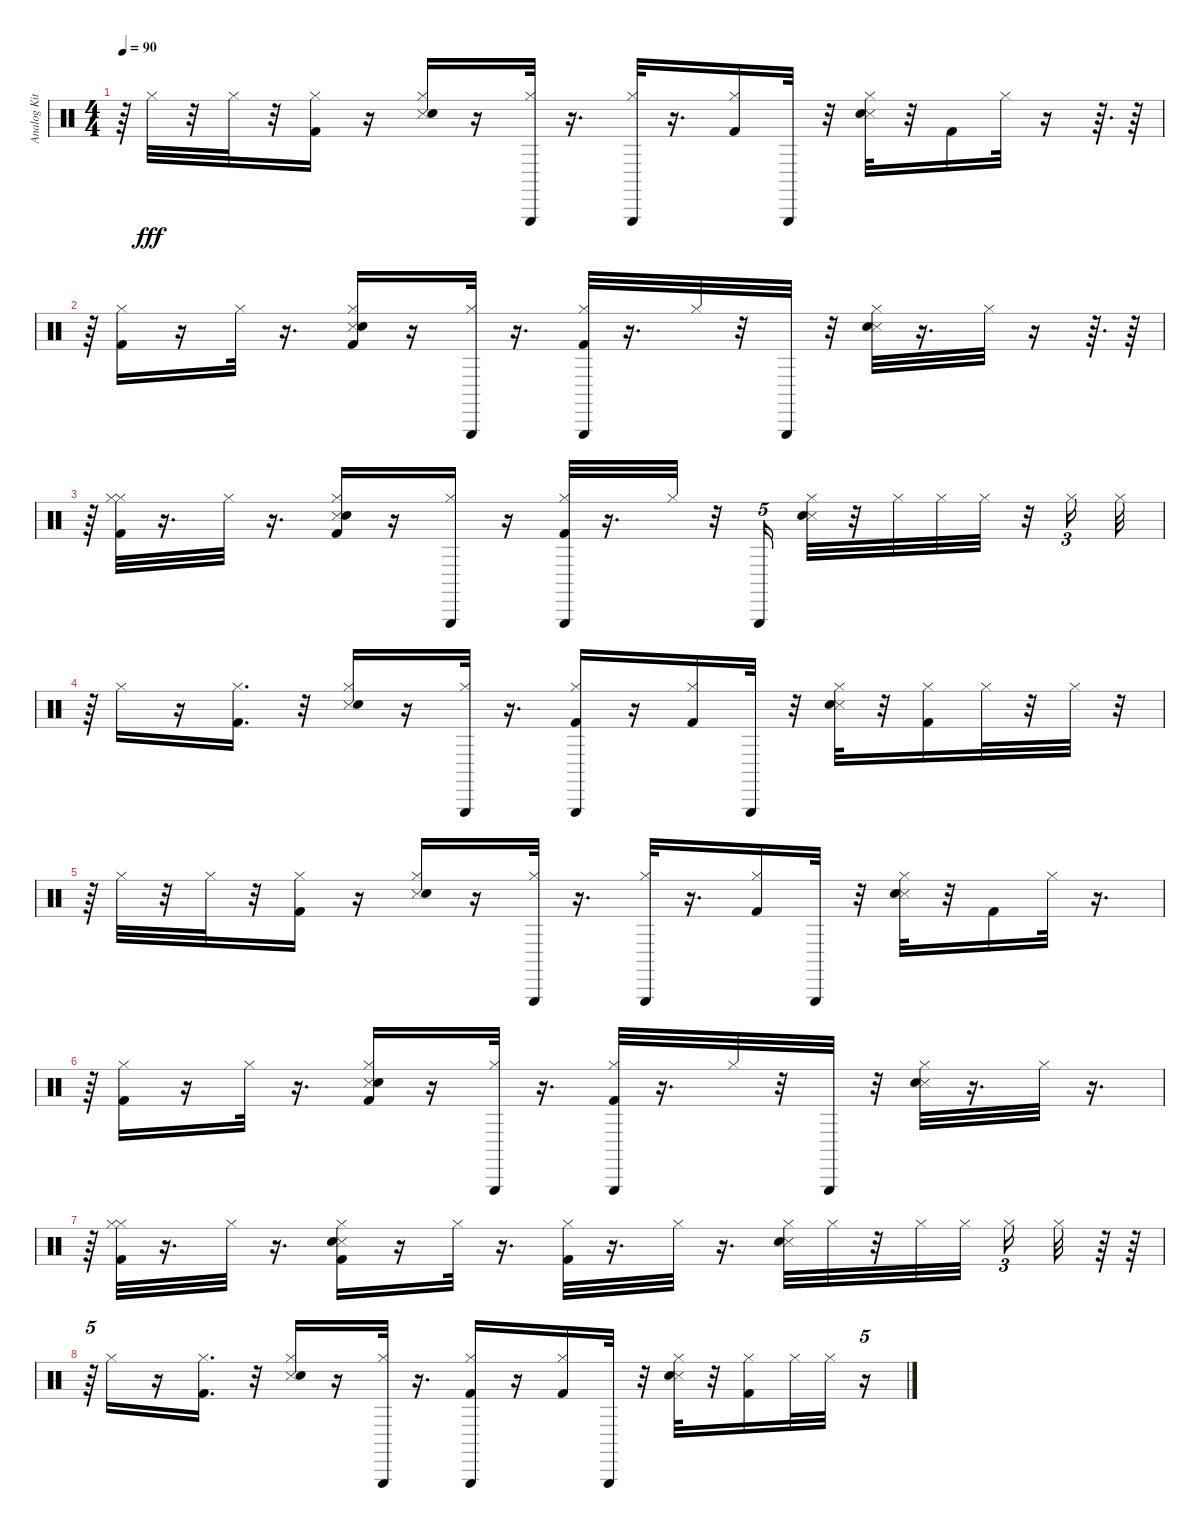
\track ("Analog Kit" "Analog Kit") {instrument percussion}
\staff {score}
\articulation defaults
\ts (4 4)
\tempo 90
\clef neutral
\ks c
r.64{dy fff} "Hi-Hat (closed)".32 r.32 "Hi-Hat (closed)".32 r.32 ("Hi-Hat (closed)" "Kick (hit) 2").16 r.16 ("Snare (side stick) 3" "Electric Snare (hit)" "Hi-Hat (closed)").16 r.16 ("Hi-Hat (closed)" "Triangle (hit)").32 r.16{d} ("Hi-Hat (closed)" "Triangle (hit)").32 r.16{d} ("Kick (hit) 2" "Hi-Hat (closed)").16 "Triangle (hit)".32 r.32 ("Snare (side stick) 3" "Electric Snare (hit)" "Hi-Hat (closed)").32 r.32 "Kick (hit) 2".16 "Hi-Hat (closed)".32 r.16 r.64{d} r.64 |
r.64 ("Hi-Hat (closed)" "Kick (hit) 2").16 r.16 "Hi-Hat (closed)".32 r.16{d} ("Snare (side stick) 3" "Kick (hit) 2" "Electric Snare (hit)" "Hi-Hat (closed)").16 r.16 ("Triangle (hit)" "Hi-Hat (closed)").32 r.16{d} ("Kick (hit) 2" "Hi-Hat (closed)" "Triangle (hit)").32 r.16{d} "Hi-Hat (closed)".32 r.32 "Triangle (hit)".32 r.32 ("Snare (side stick) 3" "Electric Snare (hit)" "Hi-Hat (closed)").32 r.16{d} "Hi-Hat (closed)".32 r.16 r.64{d} r.64 |
r.64 ("Hi-Hat (closed)" "Hi-Hat (closed)" "Kick (hit) 2").32 r.16{d} "Hi-Hat (closed)".32 r.16{d} ("Hi-Hat (closed)" "Snare (side stick) 3" "Kick (hit) 2" "Electric Snare (hit)").16 r.16 ("Hi-Hat (closed)" "Triangle (hit)").16 r.16 ("Kick (hit) 2" "Hi-Hat (closed)" "Triangle (hit)").32 r.16{d} "Hi-Hat (closed)".32 r.32 "Triangle (hit)".16{tu (5 4)} ("Hi-Hat (closed)" "Snare (side stick) 3" "Electric Snare (hit)").32 r.32 "Hi-Hat (closed)".32 "Hi-Hat (closed)".32 "Hi-Hat (closed)".32 r.32 "Hi-Hat (closed)".16{tu (3 2)} "Hi-Hat (closed)".32 |
r.64 "Hi-Hat (closed)".16 r.16 ("Kick (hit) 2" "Hi-Hat (closed)").16{d} r.32 ("Snare (side stick) 3" "Electric Snare (hit)" "Hi-Hat (closed)").16 r.16 ("Hi-Hat (closed)" "Triangle (hit)").32 r.16{d} ("Hi-Hat (closed)" "Kick (hit) 2" "Triangle (hit)").16 r.16 ("Kick (hit) 2" "Hi-Hat (closed)").16 "Triangle (hit)".32 r.32 ("Snare (side stick) 3" "Electric Snare (hit)" "Hi-Hat (closed)").32 r.32 ("Kick (hit) 2" "Hi-Hat (closed)").16 "Hi-Hat (closed)".32 r.32 "Hi-Hat (closed)".32 r.32 |
r.64 "Hi-Hat (closed)".32 r.32 "Hi-Hat (closed)".32 r.32 ("Hi-Hat (closed)" "Kick (hit) 2").16 r.16 ("Snare (side stick) 3" "Electric Snare (hit)" "Hi-Hat (closed)").16 r.16 ("Hi-Hat (closed)" "Triangle (hit)").32 r.16{d} ("Hi-Hat (closed)" "Triangle (hit)").32 r.16{d} ("Kick (hit) 2" "Hi-Hat (closed)").16 "Triangle (hit)".32 r.32 ("Snare (side stick) 3" "Electric Snare (hit)" "Hi-Hat (closed)").32 r.32 "Kick (hit) 2".16 "Hi-Hat (closed)".32 r.16{d} |
r.64 ("Hi-Hat (closed)" "Kick (hit) 2").16 r.16 "Hi-Hat (closed)".32 r.16{d} ("Snare (side stick) 3" "Kick (hit) 2" "Electric Snare (hit)" "Hi-Hat (closed)").16 r.16 ("Triangle (hit)" "Hi-Hat (closed)").32 r.16{d} ("Kick (hit) 2" "Hi-Hat (closed)" "Triangle (hit)").32 r.16{d} "Hi-Hat (closed)".32 r.32 "Triangle (hit)".32 r.32 ("Snare (side stick) 3" "Electric Snare (hit)" "Hi-Hat (closed)").32 r.16{d} "Hi-Hat (closed)".32 r.16{d} |
r.64 ("Hi-Hat (closed)" "Hi-Hat (closed)" "Kick (hit) 2").32 r.16{d} "Hi-Hat (closed)".32 r.16{d} ("Hi-Hat (closed)" "Snare (side stick) 3" "Kick (hit) 2" "Electric Snare (hit)").16 r.16 "Hi-Hat (closed)".32 r.16{d} ("Kick (hit) 2" "Hi-Hat (closed)").32 r.16{d} "Hi-Hat (closed)".32 r.16{d} ("Hi-Hat (closed)" "Snare (side stick) 3" "Electric Snare (hit)").32 "Hi-Hat (closed)".32 r.32 "Hi-Hat (closed)".32 "Hi-Hat (closed)".32{beam splitsecondary} "Hi-Hat (closed)".16{tu (3 2)} "Hi-Hat (closed)".32 r.64 r.64 |
r.64{tu (5 4)} "Hi-Hat (closed)".16 r.16 ("Kick (hit) 2" "Hi-Hat (closed)").16{d} r.32 ("Snare (side stick) 3" "Electric Snare (hit)" "Hi-Hat (closed)").16 r.16 ("Hi-Hat (closed)" "Triangle (hit)").32 r.16{d} ("Hi-Hat (closed)" "Kick (hit) 2" "Triangle (hit)").16 r.16 ("Kick (hit) 2" "Hi-Hat (closed)").16 "Triangle (hit)".32 r.32 ("Snare (side stick) 3" "Electric Snare (hit)" "Hi-Hat (closed)").32 r.32 ("Kick (hit) 2" "Hi-Hat (closed)").16 "Hi-Hat (closed)".32 "Hi-Hat (closed)".32 r.16{tu (5 4)}
